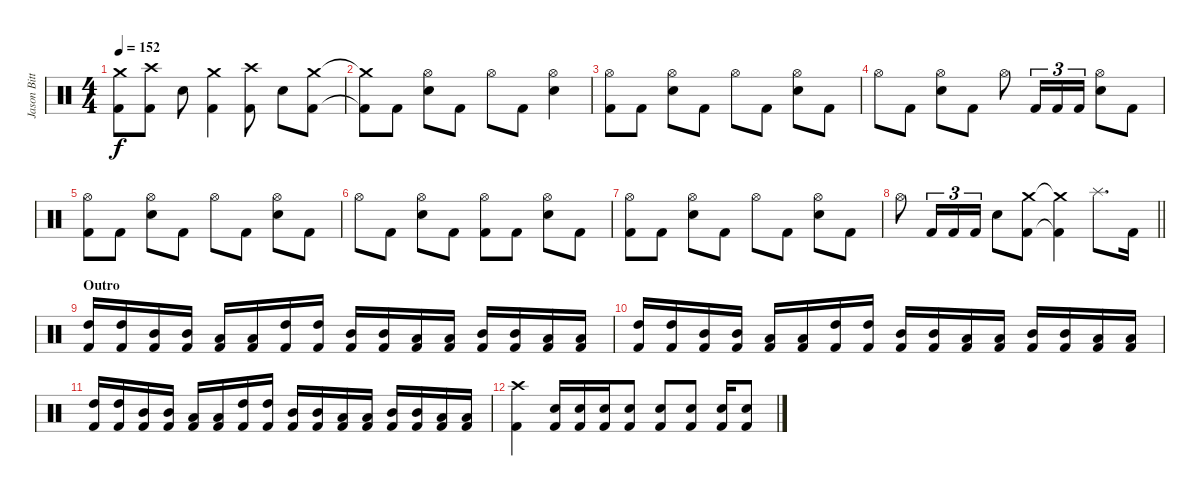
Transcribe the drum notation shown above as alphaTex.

\track ("Jason Bittner" "Jason Bitt") {instrument percussion}
\staff {score}
\articulation defaults
\ts (4 4)
\tempo 152
\clef neutral
\ks c
("Crash medium (hit)" "Kick (hit) 2").8{dy f} ("Crash high (hit)" "Kick (hit) 2").8 "Electric Snare (hit)".8 ("Crash medium (hit)" "Kick (hit) 2").4 ("Crash high (hit)" "Kick (hit) 2").8 "Electric Snare (hit)".8 ("Crash medium (hit)" "Kick (hit) 2").8 |
("Crash medium (hit)"{t} "Kick (hit) 2"{t}).8 "Kick (hit) 2".8 ("Hi-Hat (open)" "Electric Snare (hit)").8 "Kick (hit) 2".8 "Hi-Hat (open)".8 "Kick (hit) 2".8 ("Hi-Hat (open)" "Electric Snare (hit)").4 |
("Hi-Hat (open)" "Kick (hit) 2").8 "Kick (hit) 2".8 ("Hi-Hat (open)" "Electric Snare (hit)").8 "Kick (hit) 2".8 "Hi-Hat (open)".8 "Kick (hit) 2".8 ("Hi-Hat (open)" "Electric Snare (hit)").8 "Kick (hit) 2".8 |
"Hi-Hat (open)".8 "Kick (hit) 2".8 ("Hi-Hat (open)" "Electric Snare (hit)").8 "Kick (hit) 2".8 "Hi-Hat (open)".8 "Kick (hit) 2".16{tu (3 2)} "Kick (hit) 2".16{tu (3 2)} "Kick (hit) 2".16{tu (3 2)} ("Hi-Hat (open)" "Electric Snare (hit)").8 "Kick (hit) 2".8 |
("Hi-Hat (open)" "Kick (hit) 2").8 "Kick (hit) 2".8 ("Hi-Hat (open)" "Electric Snare (hit)").8 "Kick (hit) 2".8 "Hi-Hat (open)".8 "Kick (hit) 2".8 ("Hi-Hat (open)" "Electric Snare (hit)").8 "Kick (hit) 2".8 |
"Hi-Hat (open)".8 "Kick (hit) 2".8 ("Hi-Hat (open)" "Electric Snare (hit)").8 "Kick (hit) 2".8 ("Hi-Hat (open)" "Kick (hit) 2").8 "Kick (hit) 2".8 ("Hi-Hat (open)" "Electric Snare (hit)").8 "Kick (hit) 2".8 |
("Hi-Hat (open)" "Kick (hit) 2").8 "Kick (hit) 2".8 ("Hi-Hat (open)" "Electric Snare (hit)").8 "Kick (hit) 2".8 "Hi-Hat (open)".8 "Kick (hit) 2".8 ("Hi-Hat (open)" "Electric Snare (hit)").8 "Kick (hit) 2".8 |
\barLineRight lightlight "Hi-Hat (open)".8 "Kick (hit) 2".16{tu (3 2)} "Kick (hit) 2".16{tu (3 2)} "Kick (hit) 2".16{tu (3 2)} "Electric Snare (hit)".8
("Crash medium (hit)" "Kick (hit) 2").8 ("Crash medium (hit)"{t} "Kick (hit) 2"{t}).4 "Splash (hit)".8{d} "Kick (hit) 2".16 |
\section ("" "Outro")
("High Tom (hit)" "Kick (hit) 2").16 ("High Tom (hit)" "Kick (hit) 2").16 ("Mid Tom (hit)" "Kick (hit) 2").16 ("Mid Tom (hit)" "Kick (hit) 2").16 ("Low Tom (hit)" "Kick (hit) 2").16 ("Low Tom (hit)" "Kick (hit) 2").16 ("High Tom (hit)" "Kick (hit) 2").16 ("High Tom (hit)" "Kick (hit) 2").16 ("Mid Tom (hit)" "Kick (hit) 2").16 ("Mid Tom (hit)" "Kick (hit) 2").16 ("Low Tom (hit)" "Kick (hit) 2").16 ("Low Tom (hit)" "Kick (hit) 2").16 ("Mid Tom (hit)" "Kick (hit) 2").16 ("Mid Tom (hit)" "Kick (hit) 2").16 ("Low Tom (hit)" "Kick (hit) 2").16 ("Low Tom (hit)" "Kick (hit) 2").16 |
("High Tom (hit)" "Kick (hit) 2").16 ("High Tom (hit)" "Kick (hit) 2").16 ("Mid Tom (hit)" "Kick (hit) 2").16 ("Mid Tom (hit)" "Kick (hit) 2").16 ("Low Tom (hit)" "Kick (hit) 2").16 ("Low Tom (hit)" "Kick (hit) 2").16 ("High Tom (hit)" "Kick (hit) 2").16 ("High Tom (hit)" "Kick (hit) 2").16 ("Mid Tom (hit)" "Kick (hit) 2").16 ("Mid Tom (hit)" "Kick (hit) 2").16 ("Low Tom (hit)" "Kick (hit) 2").16 ("Low Tom (hit)" "Kick (hit) 2").16 ("Mid Tom (hit)" "Kick (hit) 2").16 ("Mid Tom (hit)" "Kick (hit) 2").16 ("Low Tom (hit)" "Kick (hit) 2").16 ("Low Tom (hit)" "Kick (hit) 2").16 |
("High Tom (hit)" "Kick (hit) 2").16 ("High Tom (hit)" "Kick (hit) 2").16 ("Mid Tom (hit)" "Kick (hit) 2").16 ("Mid Tom (hit)" "Kick (hit) 2").16 ("Low Tom (hit)" "Kick (hit) 2").16 ("Low Tom (hit)" "Kick (hit) 2").16 ("High Tom (hit)" "Kick (hit) 2").16 ("High Tom (hit)" "Kick (hit) 2").16 ("Mid Tom (hit)" "Kick (hit) 2").16 ("Mid Tom (hit)" "Kick (hit) 2").16 ("Low Tom (hit)" "Kick (hit) 2").16 ("Low Tom (hit)" "Kick (hit) 2").16 ("Mid Tom (hit)" "Kick (hit) 2").16 ("Mid Tom (hit)" "Kick (hit) 2").16 ("Low Tom (hit)" "Kick (hit) 2").16 ("Low Tom (hit)" "Kick (hit) 2").16 |
("Crash high (hit)" "Kick (hit) 2").4 ("Electric Snare (hit)" "Kick (hit) 2").16 ("Electric Snare (hit)" "Kick (hit) 2").16 ("Electric Snare (hit)" "Kick (hit) 2").16 ("Electric Snare (hit)" "Kick (hit) 2").8 ("Electric Snare (hit)" "Kick (hit) 2").8 ("Electric Snare (hit)" "Kick (hit) 2").8 ("Electric Snare (hit)" "Kick (hit) 2").16 ("Electric Snare (hit)" "Kick (hit) 2").8
